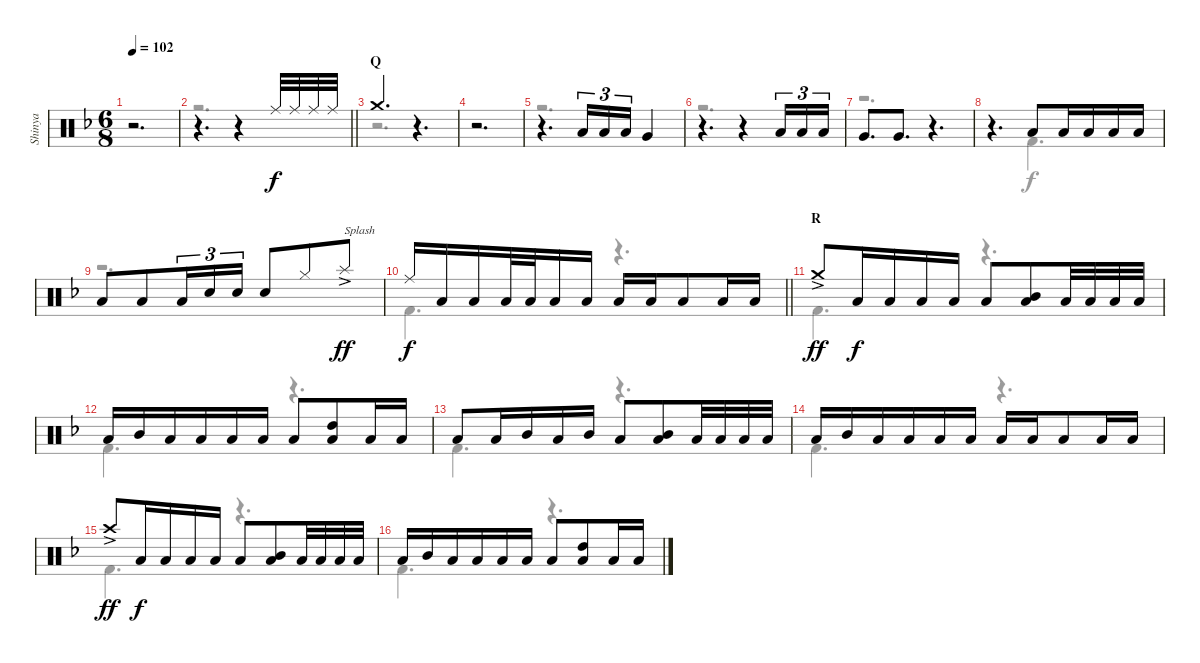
\track ("Shinya" "Shinya") {mute instrument percussion}
\staff {score}
\articulation defaults
\voice
\ts (6 8)
\tempo 102
\clef neutral
\ks f
r.2{d dy ff} |
\barLineRight lightlight
r.4{d} r.4{beam merge} "Ride (middle)".32{dy f} "Ride (middle)".32{beam merge} "Ride (middle)".32 "Ride (middle)".32 |
\section ("" "Q")
"Crash medium (hit)".4{d} r.4{d} |
r.2{d} |
r.4{d} "Low Tom (hit)".16{tu (3 2) beam merge} "Low Tom (hit)".16{tu (3 2)} "Low Tom (hit)".16{tu (3 2) beam merge} "Very Low Tom (hit)".4 |
r.4{d} r.4{beam merge} "Low Tom (hit)".16{tu (3 2)} "Low Tom (hit)".16{tu (3 2) beam merge} "Low Tom (hit)".16{tu (3 2)} |
"Very Low Tom (hit)".8{d} "Very Low Tom (hit)".8{d beam merge} r.4{d} |
r.4{d} "Low Tom (hit)".8{beam merge} "Low Tom (hit)".16 "Low Tom (hit)".16{beam merge} "Low Tom (hit)".16 "Low Tom (hit)".16 |
"Low Tom (hit)".8 "Low Tom (hit)".8{beam merge} "Low Tom (hit)".16{tu (3 2)} "Snare (hit) 2".16{tu (3 2) beam merge} "Snare (hit) 2".16{tu (3 2)} "Snare (hit) 2".8{beam merge} "Hi-Hat (closed)".8 "Splash (hit)"{ac}.8{txt "Splash" dy ff} |
\barLineRight lightlight "Ride (middle)".16{dy f} "Low Tom (hit)".16{beam merge} "Low Tom (hit)".16 "Low Tom (hit)".32 "Low Tom (hit)".32{beam merge} "Low Tom (hit)".16 "Low Tom (hit)".16 "Low Tom (hit)".16 "Low Tom (hit)".16{beam merge} "Low Tom (hit)".8{beam merge} "Low Tom (hit)".16 "Low Tom (hit)".16
|
\section ("" "R")
"Crash medium (hit)"{ac}.8{dy ff} "Low Tom (hit)".16{dy f beam merge} "Low Tom (hit)".16 "Low Tom (hit)".16{beam merge} "Low Tom (hit)".16 "Low Tom (hit)".8{beam merge} ("Mid Tom (hit)" "Low Tom (hit)").8 "Low Tom (hit)".32{beam merge} "Low Tom (hit)".32 "Low Tom (hit)".32 "Low Tom (hit)".32 |
"Low Tom (hit)".16 "Mid Tom (hit)".16{beam merge} "Low Tom (hit)".16 "Low Tom (hit)".16 "Low Tom (hit)".16{beam merge} "Low Tom (hit)".16 "Low Tom (hit)".8{beam merge} ("High Tom (hit)" "Low Tom (hit)").8 "Low Tom (hit)".16{beam merge} "Low Tom (hit)".16 |
"Low Tom (hit)".8 "Low Tom (hit)".16 "Mid Tom (hit)".16{beam merge} "Low Tom (hit)".16{beam merge} "Mid Tom (hit)".16 "Low Tom (hit)".8{beam merge} ("Mid Tom (hit)" "Low Tom (hit)").8 "Low Tom (hit)".32{beam merge} "Low Tom (hit)".32{beam merge} "Low Tom (hit)".32 "Low Tom (hit)".32 |
"Low Tom (hit)".16 "Mid Tom (hit)".16{beam merge} "Low Tom (hit)".16 "Low Tom (hit)".16 "Low Tom (hit)".16{beam merge} "Low Tom (hit)".16 "Low Tom (hit)".16 "Low Tom (hit)".16{beam merge} "Low Tom (hit)".8{beam merge} "Low Tom (hit)".16 "Low Tom (hit)".16 |
"Crash high (hit)"{ac}.8{dy ff} "Low Tom (hit)".16{dy f beam merge} "Low Tom (hit)".16 "Low Tom (hit)".16{beam merge} "Low Tom (hit)".16 "Low Tom (hit)".8{beam merge} ("Mid Tom (hit)" "Low Tom (hit)").8 "Low Tom (hit)".32{beam merge} "Low Tom (hit)".32 "Low Tom (hit)".32 "Low Tom (hit)".32 |
"Low Tom (hit)".16 "Mid Tom (hit)".16{beam merge} "Low Tom (hit)".16 "Low Tom (hit)".16 "Low Tom (hit)".16{beam merge} "Low Tom (hit)".16 "Low Tom (hit)".8{beam merge} ("High Tom (hit)" "Low Tom (hit)").8 "Low Tom (hit)".16{beam merge} "Low Tom (hit)".16
\voice
\clef neutral
\ottava regular
\simile none
\ks f
r.2{d dy f} |
\barLineRight lightlight
r.2{d} |
r.2{d} |
r.2{d} |
r.2{d} |
r.2{d} |
r.2{d} |
r.4{d} "Kick (hit) 2".4{d} |
r.2{d} |
\barLineRight lightlight "Kick (hit) 2".4{d}
r.4{d} |
"Kick (hit) 2".4{d} r.4{d} |
"Kick (hit) 2".4{d} r.4{d} |
"Kick (hit) 2".4{d} r.4{d} |
"Kick (hit) 2".4{d} r.4{d} |
"Kick (hit) 2".4{d} r.4{d} |
"Kick (hit) 2".4{d} r.4{d}
